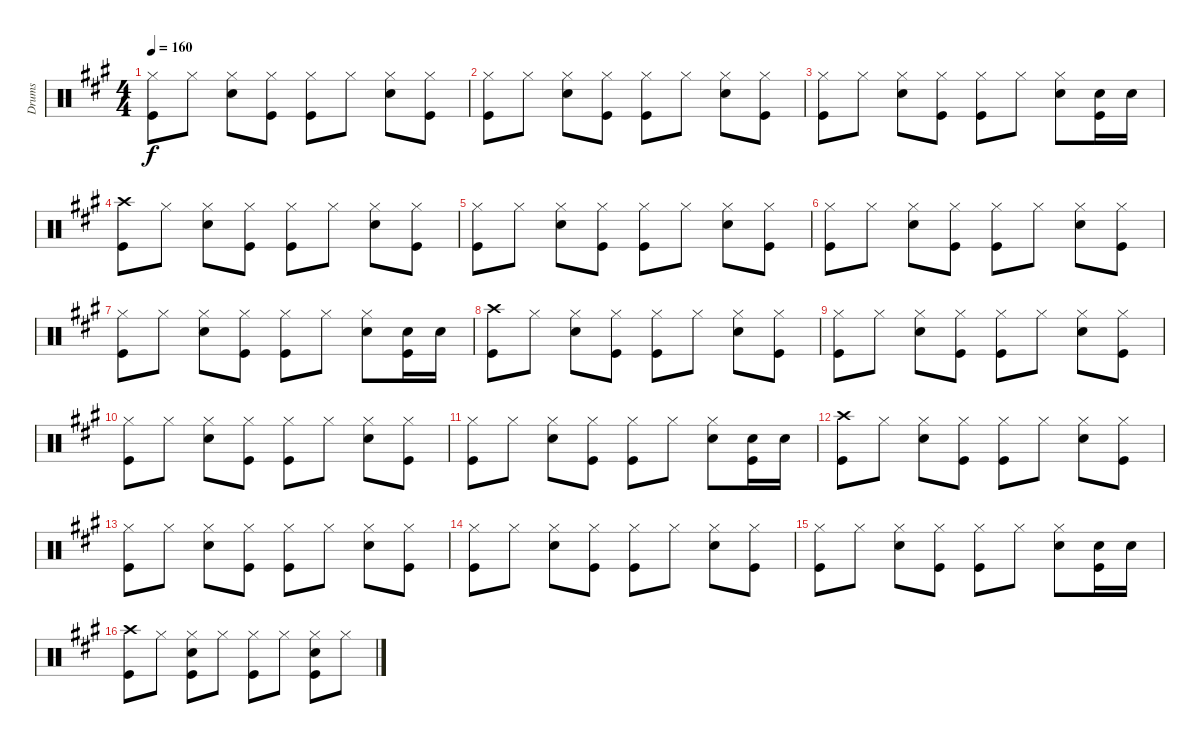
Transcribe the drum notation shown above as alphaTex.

\track ("Drums" "Drums") {instrument percussion}
\staff {score}
\articulation defaults
\ts (4 4)
\tempo 160
\clef neutral
\ks a
("Hi-Hat (closed)" "Kick (hit)").8{dy f} "Hi-Hat (closed)".8 ("Hi-Hat (closed)" "Snare (hit) 2").8 ("Hi-Hat (closed)" "Kick (hit)").8 ("Hi-Hat (closed)" "Kick (hit)").8 "Hi-Hat (closed)".8 ("Hi-Hat (closed)" "Snare (hit) 2").8 ("Hi-Hat (closed)" "Kick (hit)").8 |
("Hi-Hat (closed)" "Kick (hit)").8 "Hi-Hat (closed)".8 ("Hi-Hat (closed)" "Snare (hit) 2").8 ("Hi-Hat (closed)" "Kick (hit)").8 ("Hi-Hat (closed)" "Kick (hit)").8 "Hi-Hat (closed)".8 ("Hi-Hat (closed)" "Snare (hit) 2").8 ("Hi-Hat (closed)" "Kick (hit)").8 |
("Hi-Hat (closed)" "Kick (hit)").8 "Hi-Hat (closed)".8 ("Hi-Hat (closed)" "Snare (hit) 2").8 ("Hi-Hat (closed)" "Kick (hit)").8 ("Hi-Hat (closed)" "Kick (hit)").8 "Hi-Hat (closed)".8 ("Hi-Hat (closed)" "Snare (hit) 2").8 ("Snare (hit) 2" "Kick (hit)").16 "Snare (hit) 2".16 |
("Crash high (hit)" "Kick (hit)").8 "Hi-Hat (closed)".8 ("Hi-Hat (closed)" "Snare (hit) 2").8 ("Hi-Hat (closed)" "Kick (hit)").8 ("Hi-Hat (closed)" "Kick (hit)").8 "Hi-Hat (closed)".8 ("Hi-Hat (closed)" "Snare (hit) 2").8 ("Hi-Hat (closed)" "Kick (hit)").8 |
("Hi-Hat (closed)" "Kick (hit)").8 "Hi-Hat (closed)".8 ("Hi-Hat (closed)" "Snare (hit) 2").8 ("Hi-Hat (closed)" "Kick (hit)").8 ("Hi-Hat (closed)" "Kick (hit)").8 "Hi-Hat (closed)".8 ("Hi-Hat (closed)" "Snare (hit) 2").8 ("Hi-Hat (closed)" "Kick (hit)").8 |
("Hi-Hat (closed)" "Kick (hit)").8 "Hi-Hat (closed)".8 ("Hi-Hat (closed)" "Snare (hit) 2").8 ("Hi-Hat (closed)" "Kick (hit)").8 ("Hi-Hat (closed)" "Kick (hit)").8 "Hi-Hat (closed)".8 ("Hi-Hat (closed)" "Snare (hit) 2").8 ("Hi-Hat (closed)" "Kick (hit)").8 |
("Hi-Hat (closed)" "Kick (hit)").8 "Hi-Hat (closed)".8 ("Hi-Hat (closed)" "Snare (hit) 2").8 ("Hi-Hat (closed)" "Kick (hit)").8 ("Hi-Hat (closed)" "Kick (hit)").8 "Hi-Hat (closed)".8 ("Hi-Hat (closed)" "Snare (hit) 2").8 ("Snare (hit) 2" "Kick (hit)").16 "Snare (hit) 2".16 |
("Crash high (hit)" "Kick (hit)").8 "Hi-Hat (closed)".8 ("Hi-Hat (closed)" "Snare (hit) 2").8 ("Hi-Hat (closed)" "Kick (hit)").8 ("Hi-Hat (closed)" "Kick (hit)").8 "Hi-Hat (closed)".8 ("Hi-Hat (closed)" "Snare (hit) 2").8 ("Hi-Hat (closed)" "Kick (hit)").8 |
("Hi-Hat (closed)" "Kick (hit)").8 "Hi-Hat (closed)".8 ("Hi-Hat (closed)" "Snare (hit) 2").8 ("Hi-Hat (closed)" "Kick (hit)").8 ("Hi-Hat (closed)" "Kick (hit)").8 "Hi-Hat (closed)".8 ("Hi-Hat (closed)" "Snare (hit) 2").8 ("Hi-Hat (closed)" "Kick (hit)").8 |
("Hi-Hat (closed)" "Kick (hit)").8 "Hi-Hat (closed)".8 ("Hi-Hat (closed)" "Snare (hit) 2").8 ("Hi-Hat (closed)" "Kick (hit)").8 ("Hi-Hat (closed)" "Kick (hit)").8 "Hi-Hat (closed)".8 ("Hi-Hat (closed)" "Snare (hit) 2").8 ("Hi-Hat (closed)" "Kick (hit)").8 |
("Hi-Hat (closed)" "Kick (hit)").8 "Hi-Hat (closed)".8 ("Hi-Hat (closed)" "Snare (hit) 2").8 ("Hi-Hat (closed)" "Kick (hit)").8 ("Hi-Hat (closed)" "Kick (hit)").8 "Hi-Hat (closed)".8 ("Hi-Hat (closed)" "Snare (hit) 2").8 ("Snare (hit) 2" "Kick (hit)").16 "Snare (hit) 2".16 |
("Crash high (hit)" "Kick (hit)").8 "Hi-Hat (closed)".8 ("Hi-Hat (closed)" "Snare (hit) 2").8 ("Hi-Hat (closed)" "Kick (hit)").8 ("Hi-Hat (closed)" "Kick (hit)").8 "Hi-Hat (closed)".8 ("Hi-Hat (closed)" "Snare (hit) 2").8 ("Hi-Hat (closed)" "Kick (hit)").8 |
("Hi-Hat (closed)" "Kick (hit)").8 "Hi-Hat (closed)".8 ("Hi-Hat (closed)" "Snare (hit) 2").8 ("Hi-Hat (closed)" "Kick (hit)").8 ("Hi-Hat (closed)" "Kick (hit)").8 "Hi-Hat (closed)".8 ("Hi-Hat (closed)" "Snare (hit) 2").8 ("Hi-Hat (closed)" "Kick (hit)").8 |
("Hi-Hat (closed)" "Kick (hit)").8 "Hi-Hat (closed)".8 ("Hi-Hat (closed)" "Snare (hit) 2").8 ("Hi-Hat (closed)" "Kick (hit)").8 ("Hi-Hat (closed)" "Kick (hit)").8 "Hi-Hat (closed)".8 ("Hi-Hat (closed)" "Snare (hit) 2").8 ("Hi-Hat (closed)" "Kick (hit)").8 |
("Hi-Hat (closed)" "Kick (hit)").8 "Hi-Hat (closed)".8 ("Hi-Hat (closed)" "Snare (hit) 2").8 ("Hi-Hat (closed)" "Kick (hit)").8 ("Hi-Hat (closed)" "Kick (hit)").8 "Hi-Hat (closed)".8 ("Hi-Hat (closed)" "Snare (hit) 2").8 ("Snare (hit) 2" "Kick (hit)").16 "Snare (hit) 2".16 |
("Crash high (hit)" "Kick (hit)").8 "Hi-Hat (closed)".8 ("Hi-Hat (closed)" "Snare (hit) 2" "Kick (hit)").8 "Hi-Hat (closed)".8 ("Hi-Hat (closed)" "Kick (hit)").8 "Hi-Hat (closed)".8 ("Hi-Hat (closed)" "Snare (hit) 2" "Kick (hit)").8 "Hi-Hat (closed)".8
